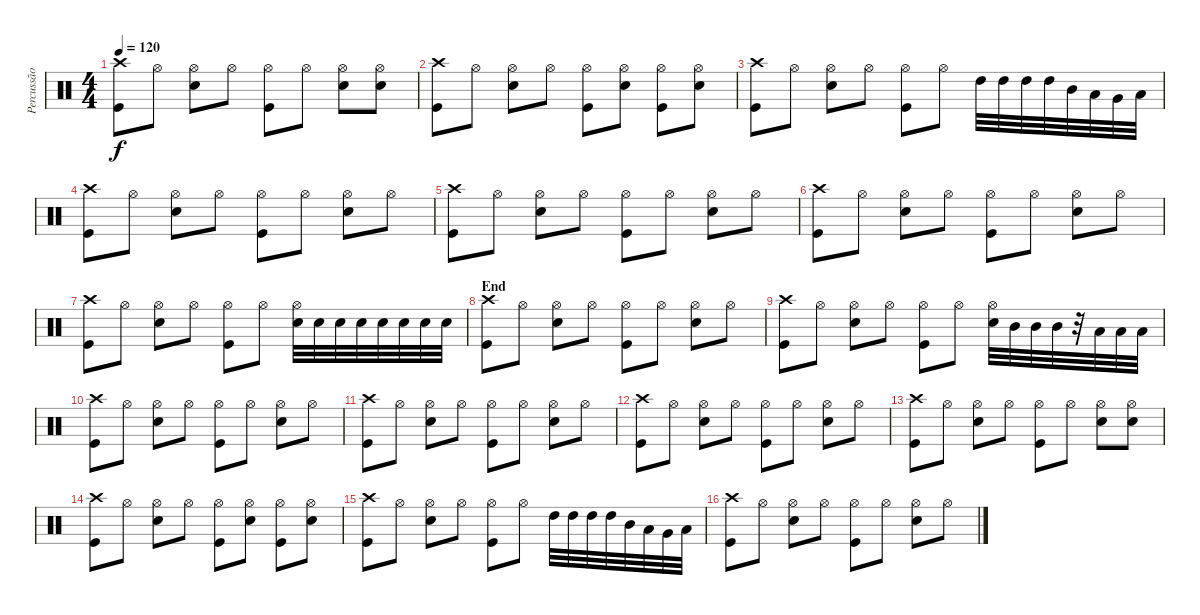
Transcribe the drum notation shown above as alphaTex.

\track ("Percussão" "Percussão") {instrument percussion}
\staff {score}
\articulation defaults
\ts (4 4)
\tempo 120
\clef neutral
\ks c
("Crash high (hit)" "Kick (hit)").8{dy f} "Hi-Hat (open)".8 ("Hi-Hat (open)" "Snare (hit) 2").8 "Hi-Hat (open)".8 ("Hi-Hat (open)" "Kick (hit)").8 "Hi-Hat (open)".8 ("Hi-Hat (open)" "Snare (hit) 2").8 ("Hi-Hat (open)" "Snare (hit) 2").8 |
("Crash high (hit)" "Kick (hit)").8 "Hi-Hat (open)".8 ("Hi-Hat (open)" "Snare (hit) 2").8 "Hi-Hat (open)".8 ("Hi-Hat (open)" "Kick (hit)").8 ("Hi-Hat (open)" "Snare (hit) 2").8 ("Hi-Hat (open)" "Kick (hit)").8 ("Hi-Hat (open)" "Snare (hit) 2").8 |
("Crash high (hit)" "Kick (hit)").8 "Hi-Hat (open)".8 ("Hi-Hat (open)" "Snare (hit) 2").8 "Hi-Hat (open)".8 ("Hi-Hat (open)" "Kick (hit)").8 "Hi-Hat (open)".8 "High Tom (hit)".32 "High Tom (hit)".32 "High Tom (hit)".32 "High Tom (hit)".32 "Mid Tom (hit)".32 "Low Tom (hit)".32 "Very Low Tom (hit)".32 "Low Floor Tom (hit)".32 |
("Crash high (hit)" "Kick (hit)").8 "Hi-Hat (open)".8 ("Hi-Hat (open)" "Snare (hit) 2").8 "Hi-Hat (open)".8 ("Hi-Hat (open)" "Kick (hit)").8 "Hi-Hat (open)".8 ("Hi-Hat (open)" "Snare (hit) 2").8 "Hi-Hat (open)".8 |
("Crash high (hit)" "Kick (hit)").8 "Hi-Hat (open)".8 ("Hi-Hat (open)" "Snare (hit) 2").8 "Hi-Hat (open)".8 ("Hi-Hat (open)" "Kick (hit)").8 "Hi-Hat (open)".8 ("Hi-Hat (open)" "Snare (hit) 2").8 "Hi-Hat (open)".8 |
("Crash high (hit)" "Kick (hit)").8 "Hi-Hat (open)".8 ("Hi-Hat (open)" "Snare (hit) 2").8 "Hi-Hat (open)".8 ("Hi-Hat (open)" "Kick (hit)").8 "Hi-Hat (open)".8 ("Hi-Hat (open)" "Snare (hit) 2").8 "Hi-Hat (open)".8 |
("Crash high (hit)" "Kick (hit)").8 "Hi-Hat (open)".8 ("Hi-Hat (open)" "Snare (hit) 2").8 "Hi-Hat (open)".8 ("Hi-Hat (open)" "Kick (hit)").8 "Hi-Hat (open)".8 ("Hi-Hat (open)" "Snare (hit) 2").32 "Snare (hit) 2".32 "Snare (hit) 2".32 "Snare (hit) 2".32 "Snare (hit) 2".32 "Snare (hit) 2".32 "Snare (hit) 2".32 "Snare (hit) 2".32 |
\section ("" "End")
("Crash high (hit)" "Kick (hit)").8 "Hi-Hat (open)".8 ("Hi-Hat (open)" "Snare (hit) 2").8 "Hi-Hat (open)".8 ("Hi-Hat (open)" "Kick (hit)").8 "Hi-Hat (open)".8 ("Hi-Hat (open)" "Snare (hit) 2").8 "Hi-Hat (open)".8 |
("Crash high (hit)" "Kick (hit)").8 "Hi-Hat (open)".8 ("Hi-Hat (open)" "Snare (hit) 2").8 "Hi-Hat (open)".8 ("Hi-Hat (open)" "Kick (hit)").8 "Hi-Hat (open)".8 ("Hi-Hat (open)" "Snare (hit) 2").32 "Mid Tom (hit)".32 "Mid Tom (hit)".32 "Mid Tom (hit)".32 r.32 "Low Floor Tom (hit)".32 "Low Floor Tom (hit)".32 "Low Floor Tom (hit)".32 |
("Crash high (hit)" "Kick (hit)").8 "Hi-Hat (open)".8 ("Hi-Hat (open)" "Snare (hit) 2").8 "Hi-Hat (open)".8 ("Hi-Hat (open)" "Kick (hit)").8 "Hi-Hat (open)".8 ("Hi-Hat (open)" "Snare (hit) 2").8 "Hi-Hat (open)".8 |
("Crash high (hit)" "Kick (hit)").8 "Hi-Hat (open)".8 ("Hi-Hat (open)" "Snare (hit) 2").8 "Hi-Hat (open)".8 ("Hi-Hat (open)" "Kick (hit)").8 "Hi-Hat (open)".8 ("Hi-Hat (open)" "Snare (hit) 2").8 "Hi-Hat (open)".8 |
("Crash high (hit)" "Kick (hit)").8 "Hi-Hat (open)".8 ("Hi-Hat (open)" "Snare (hit) 2").8 "Hi-Hat (open)".8 ("Hi-Hat (open)" "Kick (hit)").8 "Hi-Hat (open)".8 ("Hi-Hat (open)" "Snare (hit) 2").8 "Hi-Hat (open)".8 |
("Crash high (hit)" "Kick (hit)").8 "Hi-Hat (open)".8 ("Hi-Hat (open)" "Snare (hit) 2").8 "Hi-Hat (open)".8 ("Hi-Hat (open)" "Kick (hit)").8 "Hi-Hat (open)".8 ("Hi-Hat (open)" "Snare (hit) 2").8 ("Hi-Hat (open)" "Snare (hit) 2").8 |
("Crash high (hit)" "Kick (hit)").8 "Hi-Hat (open)".8 ("Hi-Hat (open)" "Snare (hit) 2").8 "Hi-Hat (open)".8 ("Hi-Hat (open)" "Kick (hit)").8 ("Hi-Hat (open)" "Snare (hit) 2").8 ("Hi-Hat (open)" "Kick (hit)").8 ("Hi-Hat (open)" "Snare (hit) 2").8 |
("Crash high (hit)" "Kick (hit)").8{volume 12} "Hi-Hat (open)".8 ("Hi-Hat (open)" "Snare (hit) 2").8 "Hi-Hat (open)".8 ("Hi-Hat (open)" "Kick (hit)").8 "Hi-Hat (open)".8 "High Tom (hit)".32 "High Tom (hit)".32 "High Tom (hit)".32 "High Tom (hit)".32 "Mid Tom (hit)".32 "Low Tom (hit)".32 "Very Low Tom (hit)".32 "Low Floor Tom (hit)".32 |
("Crash high (hit)" "Kick (hit)").8{volume 10} "Hi-Hat (open)".8 ("Hi-Hat (open)" "Snare (hit) 2").8 "Hi-Hat (open)".8 ("Hi-Hat (open)" "Kick (hit)").8 "Hi-Hat (open)".8 ("Hi-Hat (open)" "Snare (hit) 2").8 "Hi-Hat (open)".8
